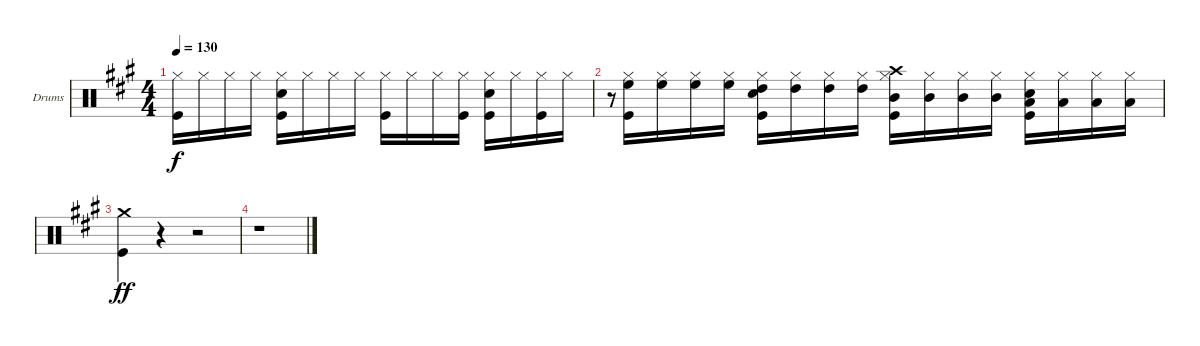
\bracketExtendMode groupsimilarinstruments
\firstSystemTrackNameOrientation horizontal
\otherSystemsTrackNameOrientation horizontal
\track ("DRUMS" "Drums") {instrument percussion}
\staff {score}
\articulation defaults
\ts (4 4)
\tempo 130
\clef neutral
\ks f#minor
("Hi-Hat (closed)" "Kick (hit)").16{dy f} "Hi-Hat (closed)".16 "Hi-Hat (closed)".16 "Hi-Hat (closed)".16 ("Hi-Hat (closed)" "Snare (hit) 2" "Kick (hit)").16 "Hi-Hat (closed)".16 "Hi-Hat (closed)".16 "Hi-Hat (closed)".16 ("Hi-Hat (closed)" "Kick (hit)").16 "Hi-Hat (closed)".16 "Hi-Hat (closed)".16 ("Hi-Hat (closed)" "Kick (hit)").16 ("Hi-Hat (closed)" "Snare (hit) 2" "Kick (hit)").16 "Hi-Hat (closed)".16 ("Hi-Hat (closed)" "Kick (hit)").16 "Hi-Hat (closed)".16 |
r.8{gr} ("Hi-Hat (closed)" "Kick (hit)" "High Floor Tom (hit)").16 ("Hi-Hat (closed)" "High Floor Tom (hit)").16 ("Hi-Hat (closed)" "High Floor Tom (hit)").16 ("Hi-Hat (closed)" "High Floor Tom (hit)").16 ("Hi-Hat (closed)" "Snare (hit) 2" "Kick (hit)" "High Tom (hit)").16 ("Hi-Hat (closed)" "High Tom (hit)").16 ("Hi-Hat (closed)" "High Tom (hit)").16 ("Hi-Hat (closed)" "High Tom (hit)").16 ("Hi-Hat (closed)" "Kick (hit)" "Mid Tom (hit)" "Crash high (hit)").16 ("Hi-Hat (closed)" "Mid Tom (hit)").16 ("Hi-Hat (closed)" "Mid Tom (hit)").16 ("Hi-Hat (closed)" "Mid Tom (hit)").16 ("Hi-Hat (closed)" "Snare (hit) 2" "Kick (hit)" "Low Tom (hit)").16 ("Hi-Hat (closed)" "Low Tom (hit)").16 ("Hi-Hat (closed)" "Low Tom (hit)").16 ("Hi-Hat (closed)" "Low Tom (hit)").16 |
("Kick (hit)" "Crash medium (hit)").4{dy ff} r.4 r.2 |
r.1
